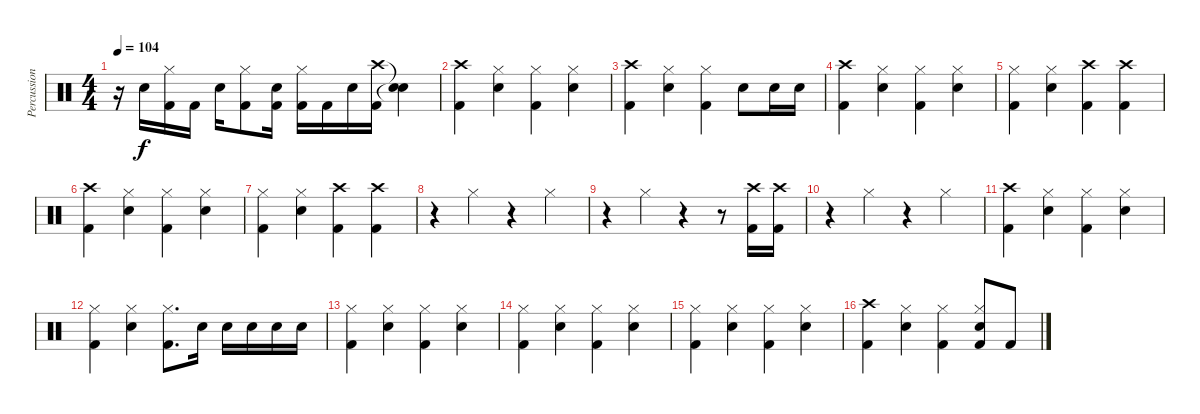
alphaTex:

\track ("Percussion" "Percussion") {instrument percussion}
\staff {score}
\articulation defaults
\ts (4 4)
\tempo 104
\clef neutral
\ks c
r.16{dy f} "Snare (hit) 2".16 ("Hi-Hat (closed)" "Kick (hit) 2").16 "Kick (hit) 2".16 "Snare (hit) 2".16 ("Hi-Hat (closed)" "Kick (hit) 2").8 ("Snare (hit) 2" "Kick (hit) 2").16 ("Hi-Hat (closed)" "Kick (hit) 2").16 "Kick (hit) 2".16 "Snare (hit) 2".16 ("Crash high (hit)" "Kick (hit) 2").16 ("Snare (hit)"{t} "Snare (hit)"{t}).4 |
("Crash high (hit)" "Kick (hit) 2").4 ("Hi-Hat (closed)" "Snare (hit) 2").4 ("Hi-Hat (closed)" "Kick (hit) 2").4 ("Hi-Hat (closed)" "Snare (hit) 2").4 |
("Crash high (hit)" "Kick (hit) 2").4 ("Hi-Hat (closed)" "Snare (hit) 2").4 ("Hi-Hat (closed)" "Kick (hit) 2").4 "Snare (hit) 2".8 "Snare (hit) 2".16 "Snare (hit) 2".16 |
("Crash high (hit)" "Kick (hit) 2").4 ("Hi-Hat (closed)" "Snare (hit) 2").4 ("Hi-Hat (closed)" "Kick (hit) 2").4 ("Hi-Hat (closed)" "Snare (hit) 2").4 |
("Hi-Hat (closed)" "Kick (hit) 2").4 ("Hi-Hat (closed)" "Snare (hit) 2").4 ("Crash high (hit)" "Kick (hit) 2").4 ("Crash high (hit)" "Kick (hit) 2").4 |
("Crash high (hit)" "Kick (hit) 2").4 ("Hi-Hat (closed)" "Snare (hit) 2").4 ("Hi-Hat (closed)" "Kick (hit) 2").4 ("Hi-Hat (closed)" "Snare (hit) 2").4 |
("Hi-Hat (closed)" "Kick (hit) 2").4 ("Hi-Hat (closed)" "Snare (hit) 2").4 ("Crash high (hit)" "Kick (hit) 2").4 ("Crash high (hit)" "Kick (hit) 2").4 |
r.4 "Hi-Hat (closed)".4 r.4 "Hi-Hat (closed)".4 |
r.4 "Hi-Hat (closed)".4 r.4 r.8 ("Crash high (hit)" "Kick (hit) 2").16 ("Crash high (hit)" "Kick (hit) 2").16 |
r.4 "Hi-Hat (closed)".4 r.4 "Hi-Hat (closed)".4 |
("Crash high (hit)" "Kick (hit) 2").4 ("Hi-Hat (closed)" "Snare (hit) 2").4 ("Hi-Hat (closed)" "Kick (hit) 2").4 ("Hi-Hat (closed)" "Snare (hit) 2").4 |
("Hi-Hat (closed)" "Kick (hit) 2").4 ("Hi-Hat (closed)" "Snare (hit) 2").4 ("Hi-Hat (closed)" "Kick (hit) 2").8{d} "Snare (hit) 2".16 "Snare (hit) 2".16 "Snare (hit) 2".16 "Snare (hit) 2".16 "Snare (hit) 2".16 |
("Hi-Hat (closed)" "Kick (hit) 2").4 ("Hi-Hat (closed)" "Snare (hit) 2").4 ("Hi-Hat (closed)" "Kick (hit) 2").4 ("Hi-Hat (closed)" "Snare (hit) 2").4 |
("Hi-Hat (closed)" "Kick (hit) 2").4 ("Hi-Hat (closed)" "Snare (hit) 2").4 ("Hi-Hat (closed)" "Kick (hit) 2").4 ("Hi-Hat (closed)" "Snare (hit) 2").4 |
("Hi-Hat (closed)" "Kick (hit) 2").4 ("Hi-Hat (closed)" "Snare (hit) 2").4 ("Hi-Hat (closed)" "Kick (hit) 2").4 ("Hi-Hat (closed)" "Snare (hit) 2").4 |
("Crash high (hit)" "Kick (hit) 2").4 ("Hi-Hat (closed)" "Snare (hit) 2").4 ("Hi-Hat (closed)" "Kick (hit) 2").4 ("Hi-Hat (closed)" "Snare (hit) 2" "Kick (hit) 2").8 "Kick (hit) 2".8
